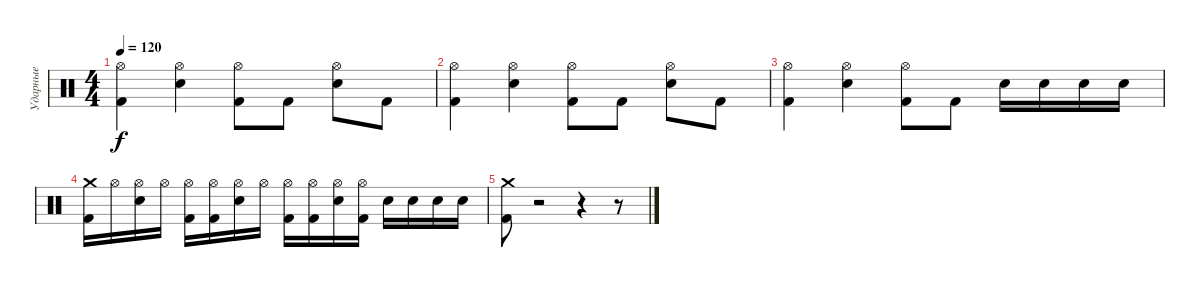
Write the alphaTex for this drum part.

\track ("Ударные" "Ударные") {instrument percussion}
\staff {score}
\articulation defaults
\ts (4 4)
\tempo 120
\clef neutral
\ks c
("Kick (hit) 2" "Hi-Hat (open)").4{dy f} ("Electric Snare (hit)" "Hi-Hat (open)").4 ("Kick (hit) 2" "Hi-Hat (open)").8 "Kick (hit) 2".8 ("Electric Snare (hit)" "Hi-Hat (open)").8 "Kick (hit) 2".8 |
("Kick (hit) 2" "Hi-Hat (open)").4 ("Electric Snare (hit)" "Hi-Hat (open)").4 ("Kick (hit) 2" "Hi-Hat (open)").8 "Kick (hit) 2".8 ("Electric Snare (hit)" "Hi-Hat (open)").8 "Kick (hit) 2".8 |
("Kick (hit) 2" "Hi-Hat (open)").4 ("Electric Snare (hit)" "Hi-Hat (open)").4 ("Kick (hit) 2" "Hi-Hat (open)").8 "Kick (hit) 2".8 "Electric Snare (hit)".16 "Electric Snare (hit)".16 "Electric Snare (hit)".16 "Electric Snare (hit)".16 |
("Kick (hit) 2" "Crash medium (hit)").16 "Hi-Hat (open)".16 ("Hi-Hat (open)" "Electric Snare (hit)").16 "Hi-Hat (open)".16 ("Kick (hit) 2" "Hi-Hat (open)").16 ("Kick (hit) 2" "Hi-Hat (open)").16 ("Hi-Hat (open)" "Electric Snare (hit)").16 "Hi-Hat (open)".16 ("Kick (hit) 2" "Hi-Hat (open)").16 ("Kick (hit) 2" "Hi-Hat (open)").16 ("Hi-Hat (open)" "Electric Snare (hit)").16 ("Kick (hit) 2" "Hi-Hat (open)").16 "Electric Snare (hit)".16 "Electric Snare (hit)".16 "Electric Snare (hit)".16 "Electric Snare (hit)".16 |
("Kick (hit) 2" "Crash medium (hit)").8 r.2 r.4 r.8
